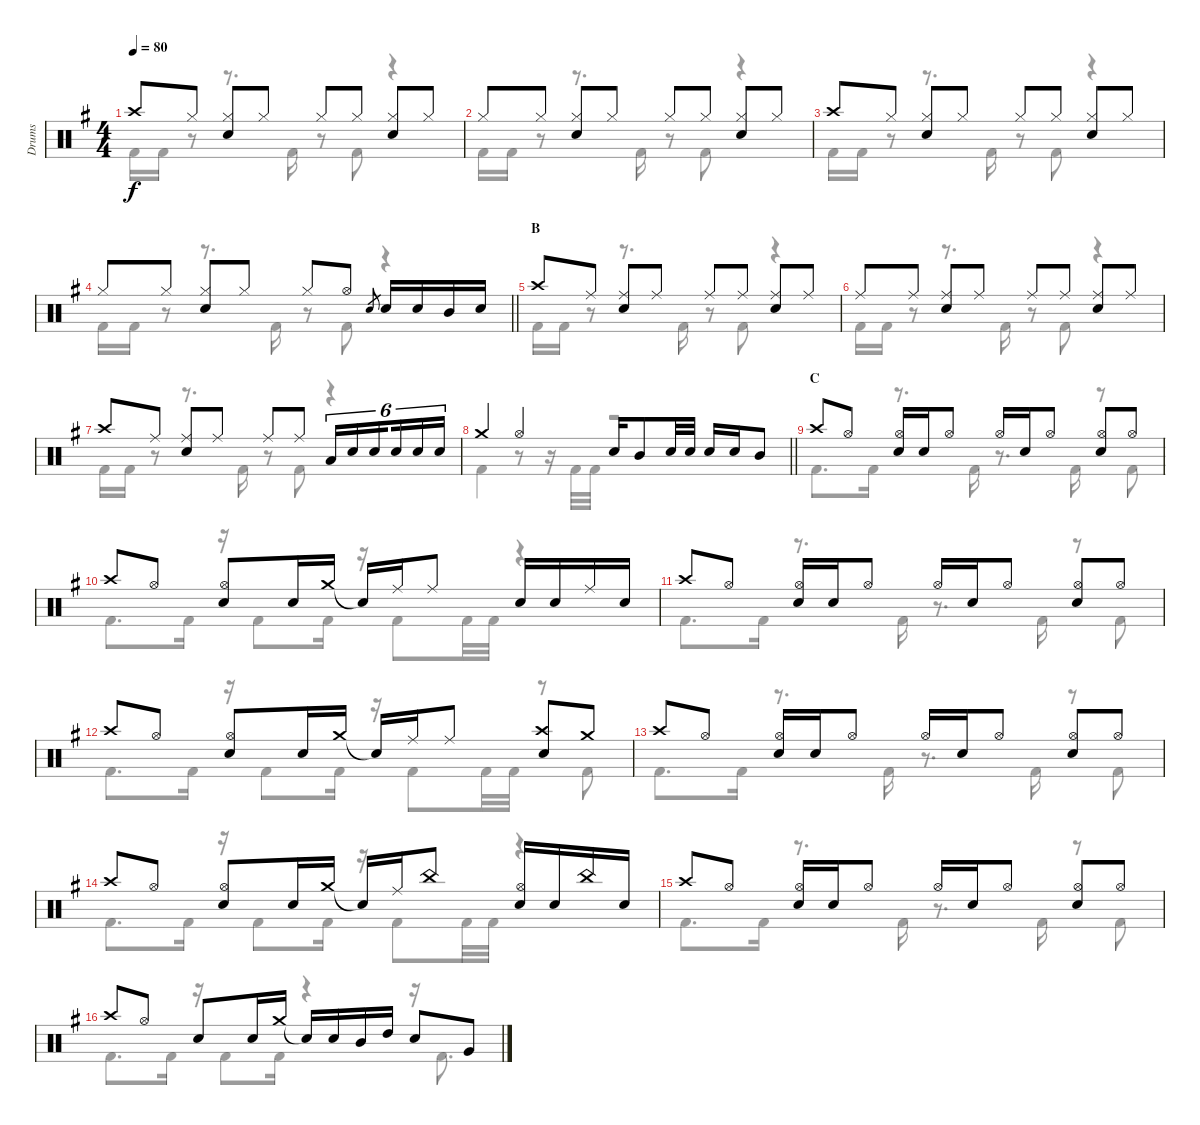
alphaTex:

\track ("Drums" "Drums") {instrument percussion}
\staff {score}
\articulation defaults
\voice
\ts (4 4)
\tempo 80
\clef neutral
\ks g "Crash high (hit)".8{dy f} "Hi-Hat (closed)".8
("Hi-Hat (closed)" "Snare (hit) 2").8 "Hi-Hat (closed)".8 "Hi-Hat (closed)".8 "Hi-Hat (closed)".8 ("Hi-Hat (closed)" "Snare (hit) 2").8 "Hi-Hat (closed)".8 |
"Hi-Hat (closed)".8 "Hi-Hat (closed)".8 ("Hi-Hat (closed)" "Snare (hit) 2").8 "Hi-Hat (closed)".8 "Hi-Hat (closed)".8 "Hi-Hat (closed)".8 ("Hi-Hat (closed)" "Snare (hit) 2").8 "Hi-Hat (closed)".8 |
"Crash high (hit)".8 "Hi-Hat (closed)".8 ("Hi-Hat (closed)" "Snare (hit) 2").8 "Hi-Hat (closed)".8 "Hi-Hat (closed)".8 "Hi-Hat (closed)".8 ("Hi-Hat (closed)" "Snare (hit) 2").8 "Hi-Hat (closed)".8 |
\barLineRight lightlight "Hi-Hat (closed)".8 "Hi-Hat (closed)".8
("Hi-Hat (closed)" "Snare (hit) 2").8 "Hi-Hat (closed)".8 "Hi-Hat (closed)".8 "Hi-Hat (open)".8 "Snare (hit) 2".8{gr} "Snare (hit) 2".16 "Snare (hit) 2".16 "Mid Tom (hit)".16 "Snare (hit) 2".16 |
\section ("" "B")
"Crash high (hit)".8 "Ride (middle)".8 ("Ride (middle)" "Snare (hit) 2").8 "Ride (middle)".8 "Ride (middle)".8 "Ride (middle)".8 ("Ride (middle)" "Snare (hit) 2").8 "Ride (middle)".8 |
"Ride (middle)".8 "Ride (middle)".8 ("Ride (middle)" "Snare (hit) 2").8 "Ride (middle)".8 "Ride (middle)".8 "Ride (middle)".8 ("Ride (middle)" "Snare (hit) 2").8 "Ride (middle)".8 |
"Crash high (hit)".8 "Ride (middle)".8 ("Ride (middle)" "Snare (hit) 2").8 "Ride (middle)".8 "Ride (middle)".8 "Ride (middle)".8 "Low Tom (hit)".16{tu (6 4)} "Snare (hit) 2".16{tu (6 4)} "Snare (hit) 2".16{tu (6 4) beam splitsecondary} "Snare (hit) 2".16{tu (6 4)} "Snare (hit) 2".16{tu (6 4)} "Snare (hit) 2".16{tu (6 4)} |
\barLineRight lightlight "Crash medium (hit)".4 "Hi-Hat (open)".4 "Snare (hit) 2".16 "Mid Tom (hit)".8 "Snare (hit) 2".32 "Snare (hit) 2".32 "Snare (hit) 2".16 "Snare (hit) 2".16 "Mid Tom (hit)".8
|
\section ("" "C")
"Crash high (hit)".8 "Hi-Hat (open)".8 ("Hi-Hat (open)" "Snare (hit) 2").16 "Snare (hit) 2".16 "Hi-Hat (open)".8 "Hi-Hat (open)".16 "Snare (hit) 2".16 "Hi-Hat (open)".8 ("Hi-Hat (open)" "Snare (hit) 2").8 "Hi-Hat (open)".8 |
"Crash high (hit)".8 "Hi-Hat (open)".8 ("Hi-Hat (open)" "Snare (hit) 2").8 "Snare (hit) 2".16 "Crash medium (hit)".16 "Snare (hit)"{t}.16 "Ride (middle)".16 "Ride (middle)".8 "Snare (hit) 2".16 "Snare (hit) 2".16 "Ride (middle)".16 "Snare (hit) 2".16 |
"Crash high (hit)".8 "Hi-Hat (open)".8 ("Hi-Hat (open)" "Snare (hit) 2").16 "Snare (hit) 2".16 "Hi-Hat (open)".8 "Hi-Hat (open)".16 "Snare (hit) 2".16 "Hi-Hat (open)".8 ("Hi-Hat (open)" "Snare (hit) 2").8 "Hi-Hat (open)".8 |
"Crash high (hit)".8 "Hi-Hat (open)".8 ("Hi-Hat (open)" "Snare (hit) 2").8 "Snare (hit) 2".16 "Crash medium (hit)".16 "Snare (hit)"{t}.16 "Ride (middle)".16 "Ride (middle)".8 ("Crash high (hit)" "Snare (hit) 2").8 "Crash medium (hit)".8 |
"Crash high (hit)".8 "Hi-Hat (open)".8 ("Hi-Hat (open)" "Snare (hit) 2").16 "Snare (hit) 2".16 "Hi-Hat (open)".8 "Hi-Hat (open)".16 "Snare (hit) 2".16 "Hi-Hat (open)".8 ("Hi-Hat (open)" "Snare (hit) 2").8 "Hi-Hat (open)".8 |
"Crash high (hit)".8 "Hi-Hat (open)".8 ("Hi-Hat (open)" "Snare (hit) 2").8 "Snare (hit) 2".16 "Crash medium (hit)".16 "Snare (hit)"{t}.16 "Ride (middle)".16 "China (hit)".8 ("Hi-Hat (open)" "Snare (hit) 2").16 "Snare (hit) 2".16 "China (hit)".16 "Snare (hit) 2".16 |
"Crash high (hit)".8 "Hi-Hat (open)".8 ("Hi-Hat (open)" "Snare (hit) 2").16 "Snare (hit) 2".16 "Hi-Hat (open)".8 "Hi-Hat (open)".16 "Snare (hit) 2".16 "Hi-Hat (open)".8 ("Hi-Hat (open)" "Snare (hit) 2").8 "Hi-Hat (open)".8 |
"Crash high (hit)".8 "Hi-Hat (open)".8 "Snare (hit) 2".8 "Snare (hit) 2".16 "Crash medium (hit)".16 "Snare (hit)"{t}.16 "Snare (hit) 2".16 "Mid Tom (hit)".16 "High Tom (hit)".16 "Snare (hit) 2".8 "Very Low Tom (hit)".8
\voice
\clef neutral
\ottava regular
\simile none
\ks g "Kick (hit) 2".16{dy f} "Kick (hit) 2".16
r.8 r.8{d} "Kick (hit) 2".16 r.8 "Kick (hit) 2".8 r.4 |
"Kick (hit) 2".16 "Kick (hit) 2".16 r.8 r.8{d} "Kick (hit) 2".16 r.8 "Kick (hit) 2".8 r.4 |
"Kick (hit) 2".16 "Kick (hit) 2".16 r.8 r.8{d} "Kick (hit) 2".16 r.8 "Kick (hit) 2".8 r.4 |
\barLineRight lightlight "Kick (hit) 2".16 "Kick (hit) 2".16
r.8 r.8{d} "Kick (hit) 2".16 r.8 "Kick (hit) 2".8 r.4 |
"Kick (hit) 2".16 "Kick (hit) 2".16 r.8 r.8{d} "Kick (hit) 2".16 r.8 "Kick (hit) 2".8 r.4 |
"Kick (hit) 2".16 "Kick (hit) 2".16 r.8 r.8{d} "Kick (hit) 2".16 r.8 "Kick (hit) 2".8 r.4 |
"Kick (hit) 2".16 "Kick (hit) 2".16 r.8 r.8{d} "Kick (hit) 2".16 r.8 "Kick (hit) 2".8 r.4 |
\barLineRight lightlight "Kick (hit) 2".4
r.8 r.16 "Kick (hit) 2".32 "Kick (hit) 2".32 r.2 |
"Kick (hit) 2".8{d} "Kick (hit) 2".16 r.8{d} "Kick (hit) 2".16 r.8{d} "Kick (hit) 2".16 r.8 "Kick (hit) 2".8 |
"Kick (hit) 2".8{d} "Kick (hit) 2".16 r.16 "Kick (hit) 2".8 "Kick (hit) 2".16 r.16 "Kick (hit) 2".8 "Kick (hit) 2".32 "Kick (hit) 2".32 r.4 |
"Kick (hit) 2".8{d} "Kick (hit) 2".16 r.8{d} "Kick (hit) 2".16 r.8{d} "Kick (hit) 2".16 r.8 "Kick (hit) 2".8 |
"Kick (hit) 2".8{d} "Kick (hit) 2".16 r.16 "Kick (hit) 2".8 "Kick (hit) 2".16 r.16 "Kick (hit) 2".8 "Kick (hit) 2".32 "Kick (hit) 2".32 r.8 "Kick (hit) 2".8 |
"Kick (hit) 2".8{d} "Kick (hit) 2".16 r.8{d} "Kick (hit) 2".16 r.8{d} "Kick (hit) 2".16 r.8 "Kick (hit) 2".8 |
"Kick (hit) 2".8{d} "Kick (hit) 2".16 r.16 "Kick (hit) 2".8 "Kick (hit) 2".16 r.16 "Kick (hit) 2".8 "Kick (hit) 2".32 "Kick (hit) 2".32 r.4 |
"Kick (hit) 2".8{d} "Kick (hit) 2".16 r.8{d} "Kick (hit) 2".16 r.8{d} "Kick (hit) 2".16 r.8 "Kick (hit) 2".8 |
"Kick (hit) 2".8{d} "Kick (hit) 2".16 r.16 "Kick (hit) 2".8 "Kick (hit) 2".16 r.4 r.16 "Kick (hit) 2".8{d}
